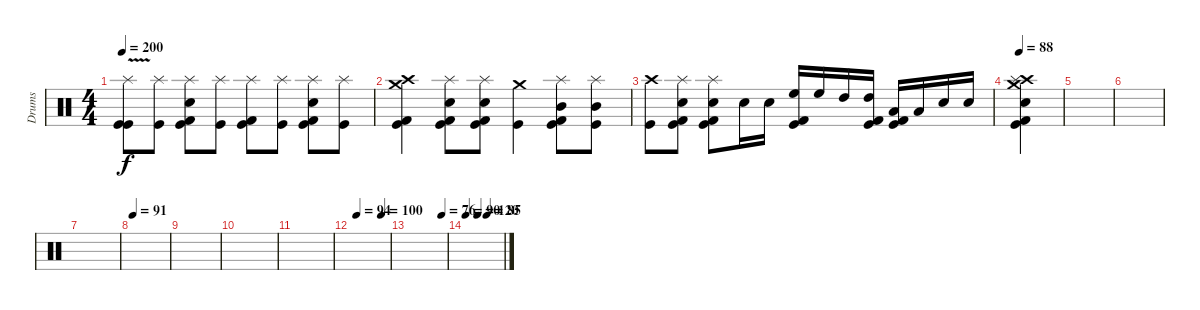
\track ("Drums" "Drums") {instrument percussion}
\staff {score}
\articulation defaults
\ts (4 4)
\tempo 200
\clef neutral
\ks c
("Splash (hit)"{v} "Kick (hit)" "Kick (hit)").8{dy f} ("Splash (hit)" "Kick (hit)").8 ("Splash (hit)" "Snare (hit) 2" "Kick (hit) 2" "Kick (hit)").8 ("Splash (hit)" "Kick (hit)").8 ("Splash (hit)" "Kick (hit) 2" "Kick (hit)").8 ("Splash (hit)" "Kick (hit)").8 ("Splash (hit)" "Snare (hit) 2" "Kick (hit) 2" "Kick (hit)").8 ("Splash (hit)" "Kick (hit)").8 |
("Crash high (hit)" "Crash medium (hit)" "Kick (hit) 2" "Kick (hit)").4 ("Splash (hit)" "Snare (hit) 2" "Kick (hit) 2" "Kick (hit)").8 ("Splash (hit)" "Snare (hit) 2" "Kick (hit) 2" "Kick (hit)").8 ("Crash medium (hit)" "Kick (hit)").4 ("Splash (hit)" "Mid Tom (hit)" "Kick (hit) 2" "Kick (hit)").8 ("Splash (hit)" "Mid Tom (hit)" "Kick (hit)").8 |
("Crash high (hit)" "Kick (hit)").8 ("Splash (hit)" "Snare (hit) 2" "Kick (hit) 2" "Kick (hit)").8 ("Splash (hit)" "Snare (hit) 2" "Kick (hit) 2" "Kick (hit)").8 "Snare (hit) 2".16 "Snare (hit) 2".16 ("High Floor Tom (hit)" "Kick (hit) 2" "Kick (hit)").16 "High Floor Tom (hit)".16 "High Tom (hit)".16 ("High Tom (hit)" "Kick (hit) 2" "Kick (hit)").16 ("Low Tom (hit)" "Kick (hit) 2" "Kick (hit)").16 "Low Tom (hit)".16 "Snare (hit) 2".16 "Snare (hit) 2".16 |
\tempo 88
("Crash medium (hit)" "Crash high (hit)" "Splash (hit)" "Electric Snare (hit)" "Kick (hit) 2" "Kick (hit)").4 |
|
|
|
\tempo 91
|
|
|
|
\tempo (94 0.125)
\tempo (100 0.7916666666666666)
|
\tempo (76 0.875)
|
\tempo 90
\tempo (120 0.3125)
\tempo (85 0.5625)
